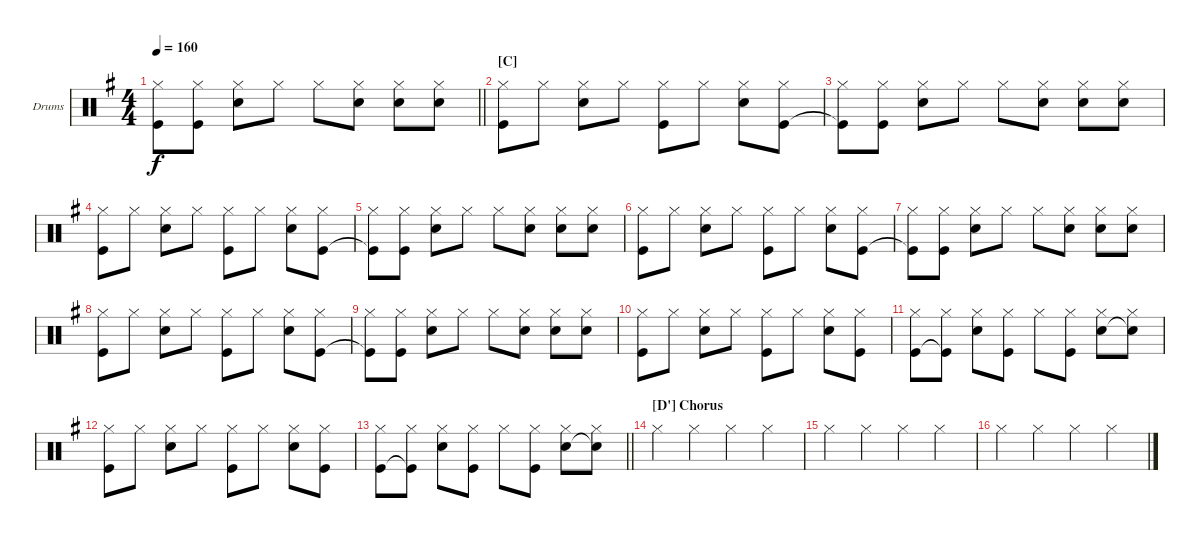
\bracketExtendMode groupsimilarinstruments
\firstSystemTrackNameOrientation horizontal
\otherSystemsTrackNameOrientation horizontal
\track ("Fabrizio Moretti" "Drums") {instrument percussion}
\staff {score}
\articulation defaults
\ts (4 4)
\tempo 160
\clef neutral
\barLineRight lightlight
\ks g
("Hi-Hat (closed)" "Kick (hit)"{t}).8{dy f} ("Hi-Hat (closed)" "Kick (hit)").8 ("Hi-Hat (closed)" "Snare (hit) 2").8 "Hi-Hat (closed)".8 "Hi-Hat (closed)".8 ("Hi-Hat (closed)" "Snare (hit) 2").8 ("Hi-Hat (closed)" "Snare (hit) 2").8 ("Hi-Hat (closed)" "Snare (hit) 2").8 |
\section ("C" "")
("Hi-Hat (closed)" "Kick (hit)").8 "Hi-Hat (closed)".8 ("Hi-Hat (closed)" "Snare (hit) 2").8 "Hi-Hat (closed)".8 ("Hi-Hat (closed)" "Kick (hit)").8 "Hi-Hat (closed)".8 ("Hi-Hat (closed)" "Snare (hit) 2").8 ("Hi-Hat (closed)" "Kick (hit)").8 |
("Hi-Hat (closed)" "Kick (hit)"{t}).8 ("Hi-Hat (closed)" "Kick (hit)").8 ("Hi-Hat (closed)" "Snare (hit) 2").8 "Hi-Hat (closed)".8 "Hi-Hat (closed)".8 ("Hi-Hat (closed)" "Snare (hit) 2").8 ("Hi-Hat (closed)" "Snare (hit) 2").8 ("Hi-Hat (closed)" "Snare (hit) 2").8 |
("Hi-Hat (closed)" "Kick (hit)").8 "Hi-Hat (closed)".8 ("Hi-Hat (closed)" "Snare (hit) 2").8 "Hi-Hat (closed)".8 ("Hi-Hat (closed)" "Kick (hit)").8 "Hi-Hat (closed)".8 ("Hi-Hat (closed)" "Snare (hit) 2").8 ("Hi-Hat (closed)" "Kick (hit)").8 |
("Hi-Hat (closed)" "Kick (hit)"{t}).8 ("Hi-Hat (closed)" "Kick (hit)").8 ("Hi-Hat (closed)" "Snare (hit) 2").8 "Hi-Hat (closed)".8 "Hi-Hat (closed)".8 ("Hi-Hat (closed)" "Snare (hit) 2").8 ("Hi-Hat (closed)" "Snare (hit) 2").8 ("Hi-Hat (closed)" "Snare (hit) 2").8 |
("Hi-Hat (closed)" "Kick (hit)").8 "Hi-Hat (closed)".8 ("Hi-Hat (closed)" "Snare (hit) 2").8 "Hi-Hat (closed)".8 ("Hi-Hat (closed)" "Kick (hit)").8 "Hi-Hat (closed)".8 ("Hi-Hat (closed)" "Snare (hit) 2").8 ("Hi-Hat (closed)" "Kick (hit)").8 |
("Hi-Hat (closed)" "Kick (hit)"{t}).8 ("Hi-Hat (closed)" "Kick (hit)").8 ("Hi-Hat (closed)" "Snare (hit) 2").8 "Hi-Hat (closed)".8 "Hi-Hat (closed)".8 ("Hi-Hat (closed)" "Snare (hit) 2").8 ("Hi-Hat (closed)" "Snare (hit) 2").8 ("Hi-Hat (closed)" "Snare (hit) 2").8 |
("Hi-Hat (closed)" "Kick (hit)").8 "Hi-Hat (closed)".8 ("Hi-Hat (closed)" "Snare (hit) 2").8 "Hi-Hat (closed)".8 ("Hi-Hat (closed)" "Kick (hit)").8 "Hi-Hat (closed)".8 ("Hi-Hat (closed)" "Snare (hit) 2").8 ("Hi-Hat (closed)" "Kick (hit)").8 |
("Hi-Hat (closed)" "Kick (hit)"{t}).8 ("Hi-Hat (closed)" "Kick (hit)").8 ("Hi-Hat (closed)" "Snare (hit) 2").8 "Hi-Hat (closed)".8 "Hi-Hat (closed)".8 ("Hi-Hat (closed)" "Snare (hit) 2").8 ("Hi-Hat (closed)" "Snare (hit) 2").8 ("Hi-Hat (closed)" "Snare (hit) 2").8 |
("Hi-Hat (closed)" "Kick (hit)").8 "Hi-Hat (closed)".8 ("Hi-Hat (closed)" "Snare (hit) 2").8 "Hi-Hat (closed)".8 ("Hi-Hat (closed)" "Kick (hit)").8 "Hi-Hat (closed)".8 ("Hi-Hat (closed)" "Snare (hit) 2").8 ("Hi-Hat (closed)" "Kick (hit)").8 |
("Hi-Hat (closed)" "Kick (hit)").8 ("Hi-Hat (closed)" "Kick (hit)"{t}).8 ("Hi-Hat (closed)" "Snare (hit) 2").8 ("Hi-Hat (closed)" "Kick (hit)").8 "Hi-Hat (closed)".8 ("Hi-Hat (closed)" "Kick (hit)").8 ("Hi-Hat (closed)" "Snare (hit) 2").8 ("Hi-Hat (closed)" "Snare (hit) 2"{t}).8 |
("Hi-Hat (closed)" "Kick (hit)").8 "Hi-Hat (closed)".8 ("Hi-Hat (closed)" "Snare (hit) 2").8 "Hi-Hat (closed)".8 ("Hi-Hat (closed)" "Kick (hit)").8 "Hi-Hat (closed)".8 ("Hi-Hat (closed)" "Snare (hit) 2").8 ("Hi-Hat (closed)" "Kick (hit)").8 |
\barLineRight lightlight
("Hi-Hat (closed)" "Kick (hit)").8 ("Hi-Hat (closed)" "Kick (hit)"{t}).8 ("Hi-Hat (closed)" "Snare (hit) 2").8 ("Hi-Hat (closed)" "Kick (hit)").8 "Hi-Hat (closed)".8 ("Hi-Hat (closed)" "Kick (hit)").8 ("Hi-Hat (closed)" "Snare (hit) 2").8 ("Hi-Hat (closed)" "Snare (hit) 2"{t}).8 |
\section ("D'" "Chorus")
"Hi-Hat (closed)".4 "Hi-Hat (closed)".4 "Hi-Hat (closed)".4 "Hi-Hat (closed)".4 |
"Hi-Hat (closed)".4 "Hi-Hat (closed)".4 "Hi-Hat (closed)".4 "Hi-Hat (closed)".4 |
"Hi-Hat (closed)".4 "Hi-Hat (closed)".4 "Hi-Hat (closed)".4 "Hi-Hat (closed)".4
